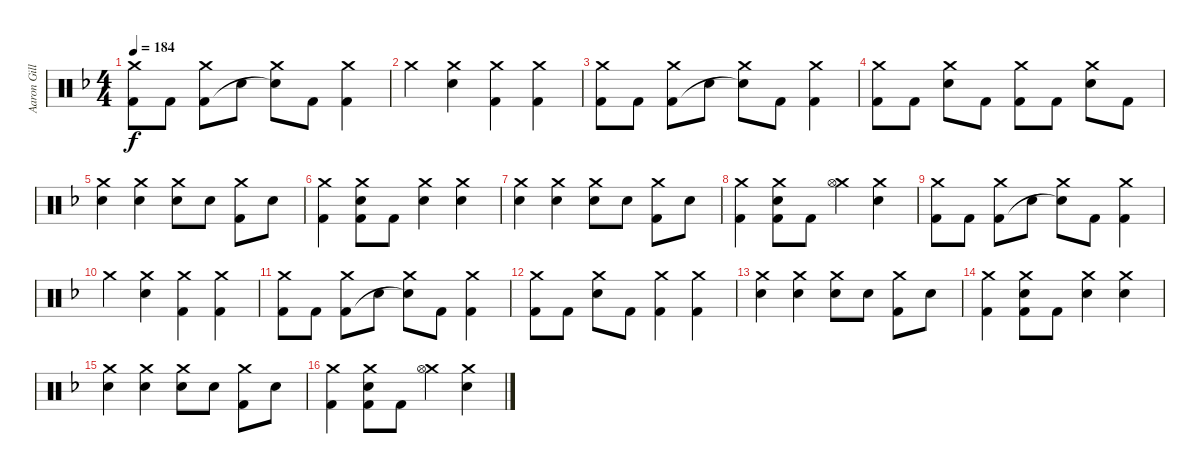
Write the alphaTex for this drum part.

\track ("Aaron Gillespie" "Aaron Gill") {instrument percussion}
\staff {score}
\articulation defaults
\ts (4 4)
\tempo 184
\clef neutral
\ks dminor
("Crash medium (hit)" "Kick (hit) 2").8{dy f} "Kick (hit) 2".8 ("Crash medium (hit)" "Kick (hit) 2").8 "Snare (hit) 2".8 ("Crash medium (hit)" "Snare (hit)"{t}).8 "Kick (hit) 2".8 ("Crash medium (hit)" "Kick (hit) 2").4 |
"Crash medium (hit)".4 ("Crash medium (hit)" "Snare (hit) 2").4 ("Crash medium (hit)" "Kick (hit) 2").4 ("Crash medium (hit)" "Kick (hit) 2").4 |
("Crash medium (hit)" "Kick (hit) 2").8 "Kick (hit) 2".8 ("Crash medium (hit)" "Kick (hit) 2").8 "Snare (hit) 2".8 ("Crash medium (hit)" "Snare (hit) 2"{t}).8 "Kick (hit) 2".8 ("Crash medium (hit)" "Kick (hit) 2").4 |
("Crash medium (hit)" "Kick (hit) 2").8 "Kick (hit) 2".8 ("Crash medium (hit)" "Snare (hit) 2").8 "Kick (hit) 2".8 ("Crash medium (hit)" "Kick (hit) 2").8 "Kick (hit) 2".8 ("Crash medium (hit)" "Snare (hit) 2").8 "Kick (hit) 2".8 |
("Crash medium (hit)" "Snare (hit) 2").4 ("Crash medium (hit)" "Snare (hit) 2").4 ("Crash medium (hit)" "Snare (hit) 2").8 "Snare (hit) 2".8 ("Crash medium (hit)" "Kick (hit) 2").8 "Snare (hit) 2".8 |
("Crash medium (hit)" "Kick (hit) 2").4 ("Crash medium (hit)" "Snare (hit) 2" "Kick (hit) 2").8 "Kick (hit) 2".8 ("Crash medium (hit)" "Snare (hit) 2").4 ("Crash medium (hit)" "Snare (hit) 2").4 |
("Crash medium (hit)" "Snare (hit) 2").4 ("Crash medium (hit)" "Snare (hit) 2").4 ("Crash medium (hit)" "Snare (hit) 2").8 "Snare (hit) 2".8 ("Crash medium (hit)" "Kick (hit) 2").8 "Snare (hit) 2".8 |
("Crash medium (hit)" "Kick (hit) 2").4 ("Crash medium (hit)" "Snare (hit) 2" "Kick (hit) 2").8 "Kick (hit) 2".8 ("Crash medium (hit)" "Hi-Hat (open)").4 ("Crash medium (hit)" "Snare (hit) 2").4 |
("Crash medium (hit)" "Kick (hit) 2").8 "Kick (hit) 2".8 ("Crash medium (hit)" "Kick (hit) 2").8 "Snare (hit) 2".8 ("Crash medium (hit)" "Snare (hit)"{t}).8 "Kick (hit) 2".8 ("Crash medium (hit)" "Kick (hit) 2").4 |
"Crash medium (hit)".4 ("Crash medium (hit)" "Snare (hit) 2").4 ("Crash medium (hit)" "Kick (hit) 2").4 ("Crash medium (hit)" "Kick (hit) 2").4 |
("Crash medium (hit)" "Kick (hit) 2").8 "Kick (hit) 2".8 ("Crash medium (hit)" "Kick (hit) 2").8 "Snare (hit) 2".8 ("Crash medium (hit)" "Snare (hit) 2"{t}).8 "Kick (hit) 2".8 ("Crash medium (hit)" "Kick (hit) 2").4 |
("Crash medium (hit)" "Kick (hit) 2").8 "Kick (hit) 2".8 ("Crash medium (hit)" "Snare (hit) 2").8 "Kick (hit) 2".8 ("Crash medium (hit)" "Kick (hit) 2").4 ("Crash medium (hit)" "Kick (hit) 2").4 |
("Crash medium (hit)" "Snare (hit) 2").4 ("Crash medium (hit)" "Snare (hit) 2").4 ("Crash medium (hit)" "Snare (hit) 2").8 "Snare (hit) 2".8 ("Crash medium (hit)" "Kick (hit) 2").8 "Snare (hit) 2".8 |
("Crash medium (hit)" "Kick (hit) 2").4 ("Crash medium (hit)" "Snare (hit) 2" "Kick (hit) 2").8 "Kick (hit) 2".8 ("Crash medium (hit)" "Snare (hit) 2").4 ("Crash medium (hit)" "Snare (hit) 2").4 |
("Crash medium (hit)" "Snare (hit) 2").4 ("Crash medium (hit)" "Snare (hit) 2").4 ("Crash medium (hit)" "Snare (hit) 2").8 "Snare (hit) 2".8 ("Crash medium (hit)" "Kick (hit) 2").8 "Snare (hit) 2".8 |
("Crash medium (hit)" "Kick (hit) 2").4 ("Crash medium (hit)" "Snare (hit) 2" "Kick (hit) 2").8 "Kick (hit) 2".8 ("Crash medium (hit)" "Hi-Hat (open)").4 ("Crash medium (hit)" "Snare (hit) 2").4
